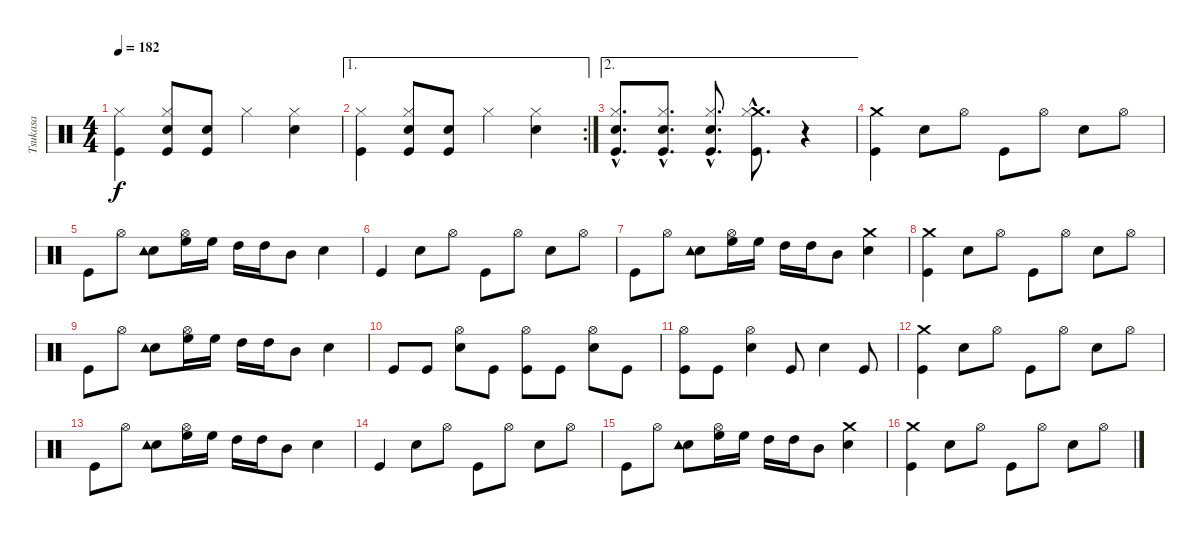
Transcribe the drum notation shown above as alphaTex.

\track ("Tsukasa" "Tsukasa") {instrument percussion}
\staff {score}
\articulation defaults
\ts (4 4)
\tempo 182
\clef neutral
\ks c
("Kick (hit)" "Hi-Hat (closed)").4{dy f} ("Electric Snare (hit)" "Hi-Hat (closed)" "Kick (hit)").8 ("Electric Snare (hit)" "Kick (hit)").8 "Hi-Hat (closed)".4 ("Electric Snare (hit)" "Hi-Hat (closed)").4 |
\ae 1
\rc 2
("Kick (hit)" "Hi-Hat (closed)").4 ("Electric Snare (hit)" "Hi-Hat (closed)" "Kick (hit)").8 ("Electric Snare (hit)" "Kick (hit)").8 "Hi-Hat (closed)".4 ("Electric Snare (hit)" "Hi-Hat (closed)").4 |
\ae 2
("Kick (hit)"{hac} "Electric Snare (hit)"{hac} "Hi-Hat (closed)"{hac}).8{d} ("Kick (hit)"{hac} "Electric Snare (hit)"{hac} "Hi-Hat (closed)"{hac}).8{d} ("Kick (hit)"{hac} "Electric Snare (hit)"{hac} "Hi-Hat (closed)"{hac}).8{d} ("Kick (hit)"{hac} "Crash medium (hit)"{hac} "Hi-Hat (closed)"{hac}).8{d} r.4 |
("Kick (hit)" "Crash medium (hit)").4 "Electric Snare (hit)".8 "Hi-Hat (open)".8 "Kick (hit)".8 "Hi-Hat (open)".8 "Electric Snare (hit)".8 "Hi-Hat (open)".8 |
"Kick (hit)".8 "Hi-Hat (open)".8 ("Electric Snare (hit)" "Tambourine (hit)").8 ("High Floor Tom (hit)" "Hi-Hat (open)").16 "High Floor Tom (hit)".16 "High Tom (hit)".16 "High Tom (hit)".16 "Mid Tom (hit)".8 "Electric Snare (hit)".4 |
"Kick (hit)".4 "Electric Snare (hit)".8 "Hi-Hat (open)".8 "Kick (hit)".8 "Hi-Hat (open)".8 "Electric Snare (hit)".8 "Hi-Hat (open)".8 |
"Kick (hit)".8 "Hi-Hat (open)".8 ("Electric Snare (hit)" "Tambourine (hit)").8 ("High Floor Tom (hit)" "Hi-Hat (open)").16 "High Floor Tom (hit)".16 "High Tom (hit)".16 "High Tom (hit)".16 "Mid Tom (hit)".8 ("Electric Snare (hit)" "Crash medium (hit)").4 |
("Kick (hit)" "Crash medium (hit)").4 "Electric Snare (hit)".8 "Hi-Hat (open)".8 "Kick (hit)".8 "Hi-Hat (open)".8 "Electric Snare (hit)".8 "Hi-Hat (open)".8 |
"Kick (hit)".8 "Hi-Hat (open)".8 ("Electric Snare (hit)" "Tambourine (hit)").8 ("High Floor Tom (hit)" "Hi-Hat (open)").16 "High Floor Tom (hit)".16 "High Tom (hit)".16 "High Tom (hit)".16 "Mid Tom (hit)".8 "Electric Snare (hit)".4 |
"Kick (hit)".8 "Kick (hit)".8 ("Electric Snare (hit)" "Hi-Hat (open)").8 "Kick (hit)".8 ("Kick (hit)" "Hi-Hat (open)").8 "Kick (hit)".8 ("Electric Snare (hit)" "Hi-Hat (open)").8 "Kick (hit)".8 |
("Kick (hit)" "Hi-Hat (open)").8 "Kick (hit)".8 ("Electric Snare (hit)" "Hi-Hat (open)").4 "Kick (hit)".8 "Electric Snare (hit)".4 "Kick (hit)".8 |
("Kick (hit)" "Crash medium (hit)").4 "Electric Snare (hit)".8 "Hi-Hat (open)".8 "Kick (hit)".8 "Hi-Hat (open)".8 "Electric Snare (hit)".8 "Hi-Hat (open)".8 |
"Kick (hit)".8 "Hi-Hat (open)".8 ("Electric Snare (hit)" "Tambourine (hit)").8 ("High Floor Tom (hit)" "Hi-Hat (open)").16 "High Floor Tom (hit)".16 "High Tom (hit)".16 "High Tom (hit)".16 "Mid Tom (hit)".8 "Electric Snare (hit)".4 |
"Kick (hit)".4 "Electric Snare (hit)".8 "Hi-Hat (open)".8 "Kick (hit)".8 "Hi-Hat (open)".8 "Electric Snare (hit)".8 "Hi-Hat (open)".8 |
"Kick (hit)".8 "Hi-Hat (open)".8 ("Electric Snare (hit)" "Tambourine (hit)").8 ("High Floor Tom (hit)" "Hi-Hat (open)").16 "High Floor Tom (hit)".16 "High Tom (hit)".16 "High Tom (hit)".16 "Mid Tom (hit)".8 ("Electric Snare (hit)" "Crash medium (hit)").4 |
("Kick (hit)" "Crash medium (hit)").4 "Electric Snare (hit)".8 "Hi-Hat (open)".8 "Kick (hit)".8 "Hi-Hat (open)".8 "Electric Snare (hit)".8 "Hi-Hat (open)".8
